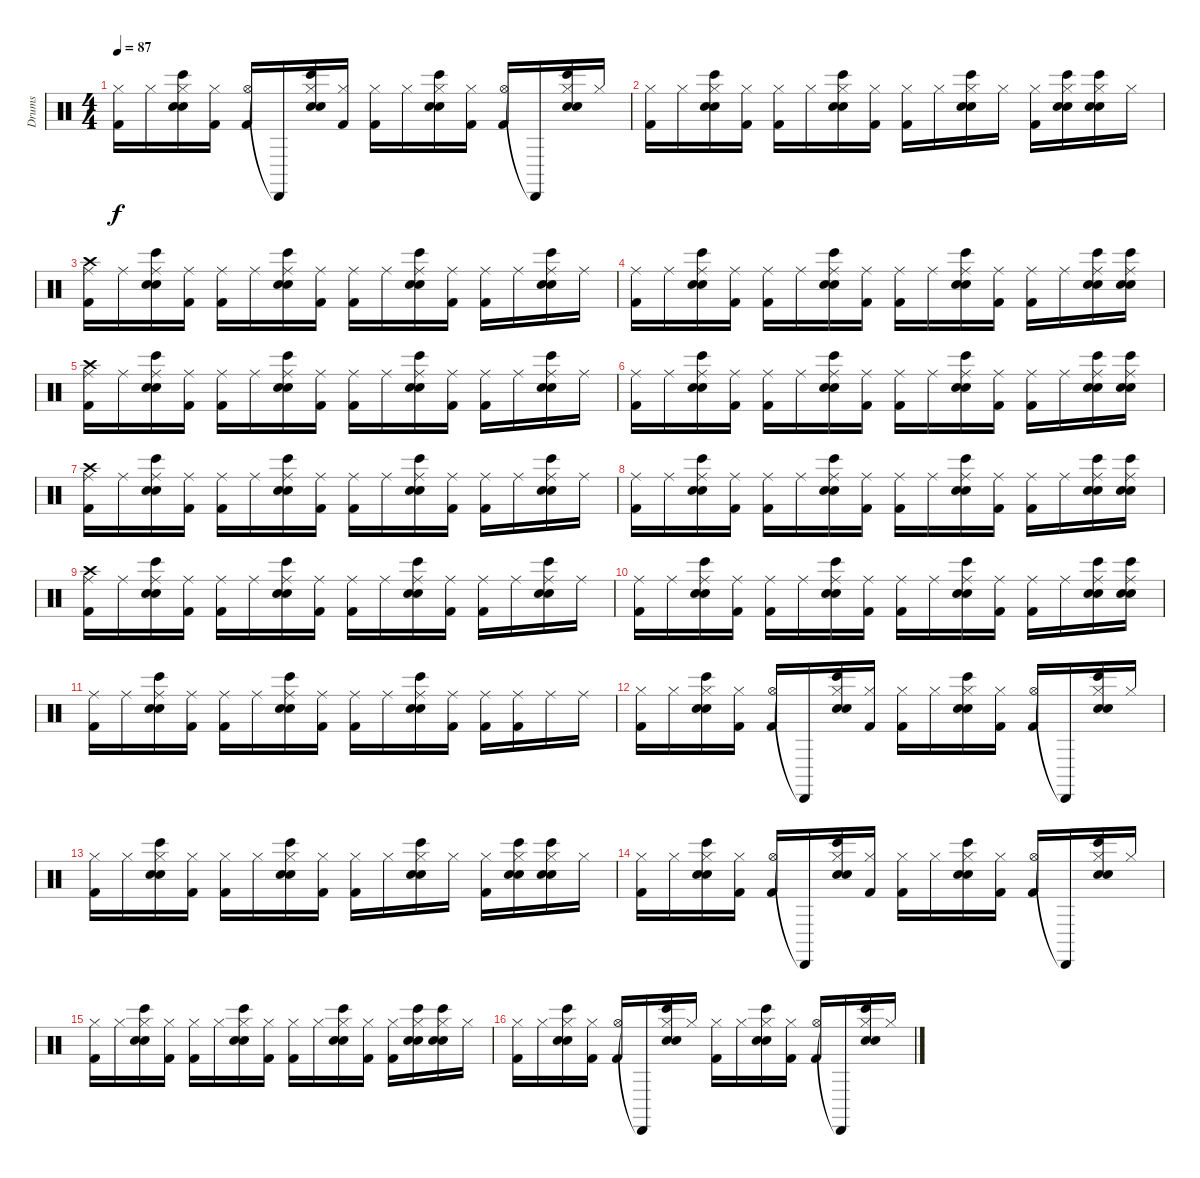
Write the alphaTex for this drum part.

\track ("Drums" "Drums") {instrument percussion}
\staff {score}
\articulation defaults
\ts (4 4)
\tempo 87
\clef neutral
\ks c
("Hi-Hat (closed)" "Kick (hit) 2").16{dy f} "Hi-Hat (closed)".16 ("Hi-Hat (closed)" "Electric Snare (hit)" "Bongo High (hit)" "Snare (hit) 2").16 ("Hi-Hat (closed)" "Kick (hit) 2").16 ("Hi-Hat (open)" "Kick (hit) 2").16 "Cabasa (hit)"{t}.16 ("Hi-Hat (closed)" "Electric Snare (hit)" "Bongo High (hit)" "Snare (hit) 2").16 ("Hi-Hat (closed)" "Kick (hit) 2").16 ("Hi-Hat (closed)" "Kick (hit) 2").16 "Hi-Hat (closed)".16 ("Hi-Hat (closed)" "Electric Snare (hit)" "Bongo High (hit)" "Snare (hit) 2").16 ("Hi-Hat (closed)" "Kick (hit) 2").16 ("Hi-Hat (open)" "Kick (hit) 2").16 "Cabasa (hit)"{t}.16 ("Hi-Hat (closed)" "Electric Snare (hit)" "Bongo High (hit)" "Snare (hit) 2").16 "Hi-Hat (closed)".16 |
("Hi-Hat (closed)" "Kick (hit) 2").16 "Hi-Hat (closed)".16 ("Hi-Hat (closed)" "Electric Snare (hit)" "Bongo High (hit)" "Snare (hit) 2").16 ("Hi-Hat (closed)" "Kick (hit) 2").16 ("Hi-Hat (closed)" "Kick (hit) 2").16 "Hi-Hat (closed)".16 ("Hi-Hat (closed)" "Electric Snare (hit)" "Bongo High (hit)" "Snare (hit) 2").16 ("Hi-Hat (closed)" "Kick (hit) 2").16 ("Hi-Hat (closed)" "Kick (hit) 2").16 "Hi-Hat (closed)".16 ("Hi-Hat (closed)" "Electric Snare (hit)" "Bongo High (hit)" "Snare (hit) 2").16 "Hi-Hat (closed)".16 ("Hi-Hat (closed)" "Kick (hit) 2").16 ("Hi-Hat (closed)" "Electric Snare (hit)" "Bongo High (hit)" "Snare (hit) 2").16 ("Hi-Hat (closed)" "Electric Snare (hit)" "Bongo High (hit)" "Snare (hit) 2").16 "Hi-Hat (closed)".16 |
("Crash high (hit)" "Ride (middle)" "Kick (hit) 2").16 "Ride (middle)".16 ("Ride (middle)" "Electric Snare (hit)" "Bongo High (hit)" "Snare (hit) 2").16 ("Ride (middle)" "Kick (hit) 2").16 ("Ride (middle)" "Kick (hit) 2").16 "Ride (middle)".16 ("Ride (middle)" "Electric Snare (hit)" "Bongo High (hit)" "Snare (hit) 2").16 ("Ride (middle)" "Kick (hit) 2").16 ("Ride (middle)" "Kick (hit) 2").16 "Ride (middle)".16 ("Ride (middle)" "Electric Snare (hit)" "Bongo High (hit)" "Snare (hit) 2").16 ("Ride (middle)" "Kick (hit) 2").16 ("Ride (middle)" "Kick (hit) 2").16 "Ride (middle)".16 ("Ride (middle)" "Electric Snare (hit)" "Bongo High (hit)" "Snare (hit) 2").16 "Ride (middle)".16 |
("Ride (middle)" "Kick (hit) 2").16 "Ride (middle)".16 ("Ride (middle)" "Electric Snare (hit)" "Bongo High (hit)" "Snare (hit) 2").16 ("Ride (middle)" "Kick (hit) 2").16 ("Ride (middle)" "Kick (hit) 2").16 "Ride (middle)".16 ("Ride (middle)" "Electric Snare (hit)" "Bongo High (hit)" "Snare (hit) 2").16 ("Ride (middle)" "Kick (hit) 2").16 ("Ride (middle)" "Kick (hit) 2").16 "Ride (middle)".16 ("Ride (middle)" "Electric Snare (hit)" "Bongo High (hit)" "Snare (hit) 2").16 ("Ride (middle)" "Kick (hit) 2").16 ("Ride (middle)" "Kick (hit) 2").16 "Ride (middle)".16 ("Ride (middle)" "Electric Snare (hit)" "Bongo High (hit)" "Snare (hit) 2").16 ("Ride (middle)" "Electric Snare (hit)" "Bongo High (hit)" "Snare (hit) 2").16 |
("Crash high (hit)" "Ride (middle)" "Kick (hit) 2").16 "Ride (middle)".16 ("Ride (middle)" "Electric Snare (hit)" "Bongo High (hit)" "Snare (hit) 2").16 ("Ride (middle)" "Kick (hit) 2").16 ("Ride (middle)" "Kick (hit) 2").16 "Ride (middle)".16 ("Ride (middle)" "Electric Snare (hit)" "Bongo High (hit)" "Snare (hit) 2").16 ("Ride (middle)" "Kick (hit) 2").16 ("Ride (middle)" "Kick (hit) 2").16 "Ride (middle)".16 ("Ride (middle)" "Electric Snare (hit)" "Bongo High (hit)" "Snare (hit) 2").16 ("Ride (middle)" "Kick (hit) 2").16 ("Ride (middle)" "Kick (hit) 2").16 "Ride (middle)".16 ("Ride (middle)" "Electric Snare (hit)" "Bongo High (hit)" "Snare (hit) 2").16 "Ride (middle)".16 |
("Ride (middle)" "Kick (hit) 2").16 "Ride (middle)".16 ("Ride (middle)" "Electric Snare (hit)" "Bongo High (hit)" "Snare (hit) 2").16 ("Ride (middle)" "Kick (hit) 2").16 ("Ride (middle)" "Kick (hit) 2").16 "Ride (middle)".16 ("Ride (middle)" "Electric Snare (hit)" "Bongo High (hit)" "Snare (hit) 2").16 ("Ride (middle)" "Kick (hit) 2").16 ("Ride (middle)" "Kick (hit) 2").16 "Ride (middle)".16 ("Ride (middle)" "Electric Snare (hit)" "Bongo High (hit)" "Snare (hit) 2").16 ("Ride (middle)" "Kick (hit) 2").16 ("Ride (middle)" "Kick (hit) 2").16 "Ride (middle)".16 ("Ride (middle)" "Electric Snare (hit)" "Bongo High (hit)" "Snare (hit) 2").16 ("Ride (middle)" "Electric Snare (hit)" "Bongo High (hit)" "Snare (hit) 2").16 |
("Crash high (hit)" "Ride (middle)" "Kick (hit) 2").16 "Ride (middle)".16 ("Ride (middle)" "Electric Snare (hit)" "Bongo High (hit)" "Snare (hit) 2").16 ("Ride (middle)" "Kick (hit) 2").16 ("Ride (middle)" "Kick (hit) 2").16 "Ride (middle)".16 ("Ride (middle)" "Electric Snare (hit)" "Bongo High (hit)" "Snare (hit) 2").16 ("Ride (middle)" "Kick (hit) 2").16 ("Ride (middle)" "Kick (hit) 2").16 "Ride (middle)".16 ("Ride (middle)" "Electric Snare (hit)" "Bongo High (hit)" "Snare (hit) 2").16 ("Ride (middle)" "Kick (hit) 2").16 ("Ride (middle)" "Kick (hit) 2").16 "Ride (middle)".16 ("Ride (middle)" "Electric Snare (hit)" "Bongo High (hit)" "Snare (hit) 2").16 "Ride (middle)".16 |
("Ride (middle)" "Kick (hit) 2").16 "Ride (middle)".16 ("Ride (middle)" "Electric Snare (hit)" "Bongo High (hit)" "Snare (hit) 2").16 ("Ride (middle)" "Kick (hit) 2").16 ("Ride (middle)" "Kick (hit) 2").16 "Ride (middle)".16 ("Ride (middle)" "Electric Snare (hit)" "Bongo High (hit)" "Snare (hit) 2").16 ("Ride (middle)" "Kick (hit) 2").16 ("Ride (middle)" "Kick (hit) 2").16 "Ride (middle)".16 ("Ride (middle)" "Electric Snare (hit)" "Bongo High (hit)" "Snare (hit) 2").16 ("Ride (middle)" "Kick (hit) 2").16 ("Ride (middle)" "Kick (hit) 2").16 "Ride (middle)".16 ("Ride (middle)" "Electric Snare (hit)" "Bongo High (hit)" "Snare (hit) 2").16 ("Ride (middle)" "Electric Snare (hit)" "Bongo High (hit)" "Snare (hit) 2").16 |
("Crash high (hit)" "Ride (middle)" "Kick (hit) 2").16 "Ride (middle)".16 ("Ride (middle)" "Electric Snare (hit)" "Bongo High (hit)" "Snare (hit) 2").16 ("Ride (middle)" "Kick (hit) 2").16 ("Ride (middle)" "Kick (hit) 2").16 "Ride (middle)".16 ("Ride (middle)" "Electric Snare (hit)" "Bongo High (hit)" "Snare (hit) 2").16 ("Ride (middle)" "Kick (hit) 2").16 ("Ride (middle)" "Kick (hit) 2").16 "Ride (middle)".16 ("Ride (middle)" "Electric Snare (hit)" "Bongo High (hit)" "Snare (hit) 2").16 ("Ride (middle)" "Kick (hit) 2").16 ("Ride (middle)" "Kick (hit) 2").16 "Ride (middle)".16 ("Ride (middle)" "Electric Snare (hit)" "Bongo High (hit)" "Snare (hit) 2").16 "Ride (middle)".16 |
("Ride (middle)" "Kick (hit) 2").16 "Ride (middle)".16 ("Ride (middle)" "Electric Snare (hit)" "Bongo High (hit)" "Snare (hit) 2").16 ("Ride (middle)" "Kick (hit) 2").16 ("Ride (middle)" "Kick (hit) 2").16 "Ride (middle)".16 ("Ride (middle)" "Electric Snare (hit)" "Bongo High (hit)" "Snare (hit) 2").16 ("Ride (middle)" "Kick (hit) 2").16 ("Ride (middle)" "Kick (hit) 2").16 "Ride (middle)".16 ("Ride (middle)" "Electric Snare (hit)" "Bongo High (hit)" "Snare (hit) 2").16 ("Ride (middle)" "Kick (hit) 2").16 ("Ride (middle)" "Kick (hit) 2").16 "Ride (middle)".16 ("Ride (middle)" "Electric Snare (hit)" "Bongo High (hit)" "Snare (hit) 2").16 ("Ride (middle)" "Electric Snare (hit)" "Bongo High (hit)" "Snare (hit) 2").16 |
("Ride (middle)" "Kick (hit) 2").16 "Ride (middle)".16 ("Ride (middle)" "Electric Snare (hit)" "Bongo High (hit)" "Snare (hit) 2").16 ("Ride (middle)" "Kick (hit) 2").16 ("Ride (middle)" "Kick (hit) 2").16 "Ride (middle)".16 ("Ride (middle)" "Electric Snare (hit)" "Bongo High (hit)" "Snare (hit) 2").16 ("Ride (middle)" "Kick (hit) 2").16 ("Ride (middle)" "Kick (hit) 2").16 "Ride (middle)".16 ("Ride (middle)" "Electric Snare (hit)" "Bongo High (hit)" "Snare (hit) 2").16 ("Ride (middle)" "Kick (hit) 2").16 ("Ride (middle)" "Kick (hit) 2").16 ("Ride (middle)" "Kick (hit) 2").16 "Ride (middle)".16 "Ride (middle)".16 |
("Hi-Hat (closed)" "Kick (hit) 2").16 "Hi-Hat (closed)".16 ("Hi-Hat (closed)" "Electric Snare (hit)" "Bongo High (hit)" "Snare (hit) 2").16 ("Hi-Hat (closed)" "Kick (hit) 2").16 ("Hi-Hat (open)" "Kick (hit) 2").16 "Cabasa (hit)"{t}.16 ("Hi-Hat (closed)" "Electric Snare (hit)" "Bongo High (hit)" "Snare (hit) 2").16 ("Hi-Hat (closed)" "Kick (hit) 2").16 ("Hi-Hat (closed)" "Kick (hit) 2").16 "Hi-Hat (closed)".16 ("Hi-Hat (closed)" "Electric Snare (hit)" "Bongo High (hit)" "Snare (hit) 2").16 ("Hi-Hat (closed)" "Kick (hit) 2").16 ("Hi-Hat (open)" "Kick (hit) 2").16 "Cabasa (hit)"{t}.16 ("Hi-Hat (closed)" "Electric Snare (hit)" "Bongo High (hit)" "Snare (hit) 2").16 "Hi-Hat (closed)".16 |
("Hi-Hat (closed)" "Kick (hit) 2").16 "Hi-Hat (closed)".16 ("Hi-Hat (closed)" "Electric Snare (hit)" "Bongo High (hit)" "Snare (hit) 2").16 ("Hi-Hat (closed)" "Kick (hit) 2").16 ("Hi-Hat (closed)" "Kick (hit) 2").16 "Hi-Hat (closed)".16 ("Hi-Hat (closed)" "Electric Snare (hit)" "Bongo High (hit)" "Snare (hit) 2").16 ("Hi-Hat (closed)" "Kick (hit) 2").16 ("Hi-Hat (closed)" "Kick (hit) 2").16 "Hi-Hat (closed)".16 ("Hi-Hat (closed)" "Electric Snare (hit)" "Bongo High (hit)" "Snare (hit) 2").16 "Hi-Hat (closed)".16 ("Hi-Hat (closed)" "Kick (hit) 2").16 ("Hi-Hat (closed)" "Electric Snare (hit)" "Bongo High (hit)" "Snare (hit) 2").16 ("Hi-Hat (closed)" "Electric Snare (hit)" "Bongo High (hit)" "Snare (hit) 2").16 "Hi-Hat (closed)".16 |
("Hi-Hat (closed)" "Kick (hit) 2").16 "Hi-Hat (closed)".16 ("Hi-Hat (closed)" "Electric Snare (hit)" "Bongo High (hit)" "Snare (hit) 2").16 ("Hi-Hat (closed)" "Kick (hit) 2").16 ("Hi-Hat (open)" "Kick (hit) 2").16 "Cabasa (hit)"{t}.16 ("Hi-Hat (closed)" "Electric Snare (hit)" "Bongo High (hit)" "Snare (hit) 2").16 ("Hi-Hat (closed)" "Kick (hit) 2").16 ("Hi-Hat (closed)" "Kick (hit) 2").16 "Hi-Hat (closed)".16 ("Hi-Hat (closed)" "Electric Snare (hit)" "Bongo High (hit)" "Snare (hit) 2").16 ("Hi-Hat (closed)" "Kick (hit) 2").16 ("Hi-Hat (open)" "Kick (hit) 2").16 "Cabasa (hit)"{t}.16 ("Hi-Hat (closed)" "Electric Snare (hit)" "Bongo High (hit)" "Snare (hit) 2").16 "Hi-Hat (closed)".16 |
("Hi-Hat (closed)" "Kick (hit) 2").16 "Hi-Hat (closed)".16 ("Hi-Hat (closed)" "Electric Snare (hit)" "Bongo High (hit)" "Snare (hit) 2").16 ("Hi-Hat (closed)" "Kick (hit) 2").16 ("Hi-Hat (closed)" "Kick (hit) 2").16 "Hi-Hat (closed)".16 ("Hi-Hat (closed)" "Electric Snare (hit)" "Bongo High (hit)" "Snare (hit) 2").16 ("Hi-Hat (closed)" "Kick (hit) 2").16 ("Hi-Hat (closed)" "Kick (hit) 2").16 "Hi-Hat (closed)".16 ("Hi-Hat (closed)" "Electric Snare (hit)" "Bongo High (hit)" "Snare (hit) 2").16 ("Hi-Hat (closed)" "Kick (hit) 2").16 ("Hi-Hat (closed)" "Kick (hit) 2").16 ("Hi-Hat (closed)" "Electric Snare (hit)" "Bongo High (hit)" "Snare (hit) 2").16 ("Hi-Hat (closed)" "Electric Snare (hit)" "Bongo High (hit)" "Snare (hit) 2").16 "Hi-Hat (closed)".16 |
("Hi-Hat (closed)" "Kick (hit) 2").16 "Hi-Hat (closed)".16 ("Hi-Hat (closed)" "Electric Snare (hit)" "Bongo High (hit)" "Snare (hit) 2").16 ("Hi-Hat (closed)" "Kick (hit) 2").16 ("Hi-Hat (open)" "Kick (hit) 2").16 "Cabasa (hit)"{t}.16 ("Hi-Hat (closed)" "Electric Snare (hit)" "Bongo High (hit)" "Snare (hit) 2").16 "Hi-Hat (closed)".16 ("Hi-Hat (closed)" "Kick (hit) 2").16 "Hi-Hat (closed)".16 ("Hi-Hat (closed)" "Electric Snare (hit)" "Bongo High (hit)" "Snare (hit) 2").16 ("Hi-Hat (closed)" "Kick (hit) 2").16 ("Hi-Hat (open)" "Kick (hit) 2").16 "Cabasa (hit)"{t}.16 ("Hi-Hat (closed)" "Electric Snare (hit)" "Bongo High (hit)" "Snare (hit) 2").16 "Hi-Hat (closed)".16
